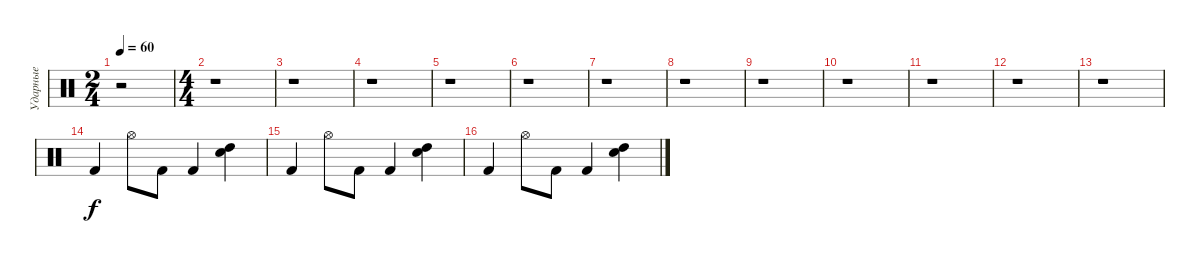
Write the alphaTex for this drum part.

\track ("Ударные" "Ударные") {instrument percussion}
\staff
\articulation defaults
\ts (2 4)
\tempo 60
\clef neutral
\ks c
r.2{dy f} |
\ts (4 4)
r.1 |
r.1 |
r.1 |
r.1 |
r.1 |
r.1 |
r.1 |
r.1 |
r.1 |
r.1 |
r.1 |
r.1 |
"Kick (hit) 2".4 "Hi-Hat (open)".8 "Kick (hit) 2".8 "Kick (hit) 2".4 ("High Tom (hit)" "Snare (hit) 2").4 |
"Kick (hit) 2".4 "Hi-Hat (open)".8 "Kick (hit) 2".8 "Kick (hit) 2".4 ("High Tom (hit)" "Snare (hit) 2").4 |
"Kick (hit) 2".4 "Hi-Hat (open)".8 "Kick (hit) 2".8 "Kick (hit) 2".4 ("High Tom (hit)" "Snare (hit) 2").4
